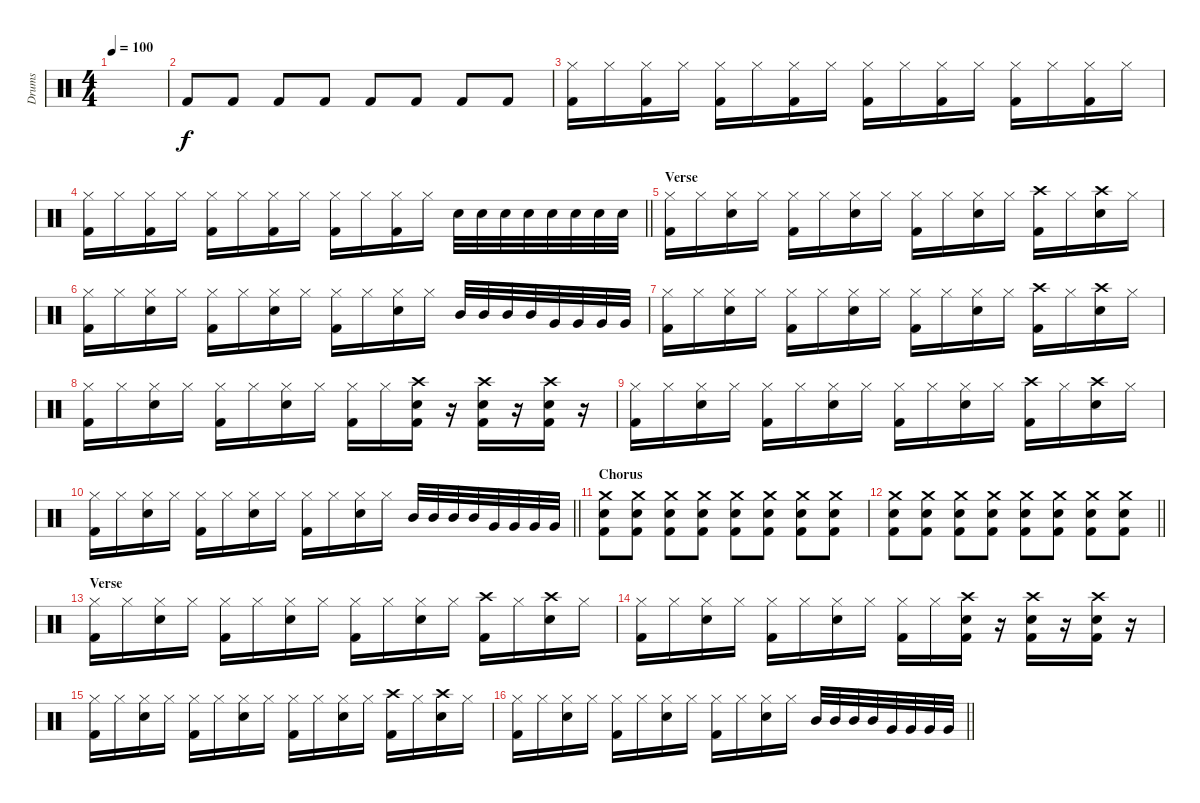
\track ("Drums" "Drums") {instrument percussion}
\staff {score}
\articulation defaults
\ts (4 4)
\tempo 100
\clef neutral
\ks c
|
"Kick (hit) 2".8 "Kick (hit) 2".8 "Kick (hit) 2".8 "Kick (hit) 2".8 "Kick (hit) 2".8 "Kick (hit) 2".8 "Kick (hit) 2".8 "Kick (hit) 2".8 |
("Kick (hit) 2" "Hi-Hat (closed)").16 "Hi-Hat (closed)".16 ("Kick (hit) 2" "Hi-Hat (closed)").16 "Hi-Hat (closed)".16 ("Kick (hit) 2" "Hi-Hat (closed)").16 "Hi-Hat (closed)".16 ("Kick (hit) 2" "Hi-Hat (closed)").16 "Hi-Hat (closed)".16 ("Kick (hit) 2" "Hi-Hat (closed)").16 "Hi-Hat (closed)".16 ("Kick (hit) 2" "Hi-Hat (closed)").16 "Hi-Hat (closed)".16 ("Kick (hit) 2" "Hi-Hat (closed)").16 "Hi-Hat (closed)".16 ("Kick (hit) 2" "Hi-Hat (closed)").16 "Hi-Hat (closed)".16 |
\barLineRight lightlight
("Kick (hit) 2" "Hi-Hat (closed)").16 "Hi-Hat (closed)".16 ("Kick (hit) 2" "Hi-Hat (closed)").16 "Hi-Hat (closed)".16 ("Kick (hit) 2" "Hi-Hat (closed)").16 "Hi-Hat (closed)".16 ("Kick (hit) 2" "Hi-Hat (closed)").16 "Hi-Hat (closed)".16 ("Kick (hit) 2" "Hi-Hat (closed)").16 "Hi-Hat (closed)".16 ("Kick (hit) 2" "Hi-Hat (closed)").16 "Hi-Hat (closed)".16 "Electric Snare (hit)".32 "Electric Snare (hit)".32 "Electric Snare (hit)".32 "Electric Snare (hit)".32 "Electric Snare (hit)".32 "Electric Snare (hit)".32 "Electric Snare (hit)".32 "Electric Snare (hit)".32 |
\section ("" "Verse")
("Kick (hit) 2" "Hi-Hat (closed)").16 "Hi-Hat (closed)".16 ("Electric Snare (hit)" "Hi-Hat (closed)").16 "Hi-Hat (closed)".16 ("Kick (hit) 2" "Hi-Hat (closed)").16 "Hi-Hat (closed)".16 ("Electric Snare (hit)" "Hi-Hat (closed)").16 "Hi-Hat (closed)".16 ("Kick (hit) 2" "Hi-Hat (closed)").16 "Hi-Hat (closed)".16 ("Electric Snare (hit)" "Hi-Hat (closed)").16 "Hi-Hat (closed)".16 ("Kick (hit) 2" "Crash high (hit)").16 "Hi-Hat (closed)".16 ("Electric Snare (hit)" "Crash high (hit)").16 "Hi-Hat (closed)".16 |
("Kick (hit) 2" "Hi-Hat (closed)").16 "Hi-Hat (closed)".16 ("Electric Snare (hit)" "Hi-Hat (closed)").16 "Hi-Hat (closed)".16 ("Kick (hit) 2" "Hi-Hat (closed)").16 "Hi-Hat (closed)".16 ("Electric Snare (hit)" "Hi-Hat (closed)").16 "Hi-Hat (closed)".16 ("Kick (hit) 2" "Hi-Hat (closed)").16 "Hi-Hat (closed)".16 ("Electric Snare (hit)" "Hi-Hat (closed)").16 "Hi-Hat (closed)".16 "Mid Tom (hit)".32 "Mid Tom (hit)".32 "Mid Tom (hit)".32 "Mid Tom (hit)".32 "Very Low Tom (hit)".32 "Very Low Tom (hit)".32 "Very Low Tom (hit)".32 "Very Low Tom (hit)".32 |
("Kick (hit) 2" "Hi-Hat (closed)").16 "Hi-Hat (closed)".16 ("Electric Snare (hit)" "Hi-Hat (closed)").16 "Hi-Hat (closed)".16 ("Kick (hit) 2" "Hi-Hat (closed)").16 "Hi-Hat (closed)".16 ("Electric Snare (hit)" "Hi-Hat (closed)").16 "Hi-Hat (closed)".16 ("Kick (hit) 2" "Hi-Hat (closed)").16 "Hi-Hat (closed)".16 ("Electric Snare (hit)" "Hi-Hat (closed)").16 "Hi-Hat (closed)".16 ("Kick (hit) 2" "Crash high (hit)").16 "Hi-Hat (closed)".16 ("Electric Snare (hit)" "Crash high (hit)").16 "Hi-Hat (closed)".16 |
("Kick (hit) 2" "Hi-Hat (closed)").16 "Hi-Hat (closed)".16 ("Electric Snare (hit)" "Hi-Hat (closed)").16 "Hi-Hat (closed)".16 ("Kick (hit) 2" "Hi-Hat (closed)").16 "Hi-Hat (closed)".16 ("Electric Snare (hit)" "Hi-Hat (closed)").16 "Hi-Hat (closed)".16 ("Kick (hit) 2" "Hi-Hat (closed)").16 "Hi-Hat (closed)".16 ("Electric Snare (hit)" "Kick (hit) 2" "Crash high (hit)").16 r.16 ("Electric Snare (hit)" "Kick (hit) 2" "Crash high (hit)").16 r.16 ("Electric Snare (hit)" "Kick (hit) 2" "Crash high (hit)").16 r.16 |
("Kick (hit) 2" "Hi-Hat (closed)").16 "Hi-Hat (closed)".16 ("Electric Snare (hit)" "Hi-Hat (closed)").16 "Hi-Hat (closed)".16 ("Kick (hit) 2" "Hi-Hat (closed)").16 "Hi-Hat (closed)".16 ("Electric Snare (hit)" "Hi-Hat (closed)").16 "Hi-Hat (closed)".16 ("Kick (hit) 2" "Hi-Hat (closed)").16 "Hi-Hat (closed)".16 ("Electric Snare (hit)" "Hi-Hat (closed)").16 "Hi-Hat (closed)".16 ("Kick (hit) 2" "Crash high (hit)").16 "Hi-Hat (closed)".16 ("Electric Snare (hit)" "Crash high (hit)").16 "Hi-Hat (closed)".16 |
\barLineRight lightlight
("Kick (hit) 2" "Hi-Hat (closed)").16 "Hi-Hat (closed)".16 ("Electric Snare (hit)" "Hi-Hat (closed)").16 "Hi-Hat (closed)".16 ("Kick (hit) 2" "Hi-Hat (closed)").16 "Hi-Hat (closed)".16 ("Electric Snare (hit)" "Hi-Hat (closed)").16 "Hi-Hat (closed)".16 ("Kick (hit) 2" "Hi-Hat (closed)").16 "Hi-Hat (closed)".16 ("Electric Snare (hit)" "Hi-Hat (closed)").16 "Hi-Hat (closed)".16 "Mid Tom (hit)".32 "Mid Tom (hit)".32 "Mid Tom (hit)".32 "Mid Tom (hit)".32 "Very Low Tom (hit)".32 "Very Low Tom (hit)".32 "Very Low Tom (hit)".32 "Very Low Tom (hit)".32 |
\section ("" "Chorus")
("Kick (hit) 2" "Electric Snare (hit)" "Crash medium (hit)").8 ("Kick (hit) 2" "Electric Snare (hit)" "Crash medium (hit)").8 ("Kick (hit) 2" "Electric Snare (hit)" "Crash medium (hit)").8 ("Kick (hit) 2" "Electric Snare (hit)" "Crash medium (hit)").8 ("Kick (hit) 2" "Electric Snare (hit)" "Crash medium (hit)").8 ("Kick (hit) 2" "Electric Snare (hit)" "Crash medium (hit)").8 ("Kick (hit) 2" "Electric Snare (hit)" "Crash medium (hit)").8 ("Kick (hit) 2" "Electric Snare (hit)" "Crash medium (hit)").8 |
\barLineRight lightlight
("Kick (hit) 2" "Electric Snare (hit)" "Crash medium (hit)").8 ("Kick (hit) 2" "Electric Snare (hit)" "Crash medium (hit)").8 ("Kick (hit) 2" "Electric Snare (hit)" "Crash medium (hit)").8 ("Kick (hit) 2" "Electric Snare (hit)" "Crash medium (hit)").8 ("Kick (hit) 2" "Electric Snare (hit)" "Crash medium (hit)").8 ("Kick (hit) 2" "Electric Snare (hit)" "Crash medium (hit)").8 ("Kick (hit) 2" "Electric Snare (hit)" "Crash medium (hit)").8 ("Kick (hit) 2" "Electric Snare (hit)" "Crash medium (hit)").8 |
\section ("" "Verse")
("Kick (hit) 2" "Hi-Hat (closed)").16 "Hi-Hat (closed)".16 ("Electric Snare (hit)" "Hi-Hat (closed)").16 "Hi-Hat (closed)".16 ("Kick (hit) 2" "Hi-Hat (closed)").16 "Hi-Hat (closed)".16 ("Electric Snare (hit)" "Hi-Hat (closed)").16 "Hi-Hat (closed)".16 ("Kick (hit) 2" "Hi-Hat (closed)").16 "Hi-Hat (closed)".16 ("Electric Snare (hit)" "Hi-Hat (closed)").16 "Hi-Hat (closed)".16 ("Kick (hit) 2" "Crash high (hit)").16 "Hi-Hat (closed)".16 ("Electric Snare (hit)" "Crash high (hit)").16 "Hi-Hat (closed)".16 |
("Kick (hit) 2" "Hi-Hat (closed)").16 "Hi-Hat (closed)".16 ("Electric Snare (hit)" "Hi-Hat (closed)").16 "Hi-Hat (closed)".16 ("Kick (hit) 2" "Hi-Hat (closed)").16 "Hi-Hat (closed)".16 ("Electric Snare (hit)" "Hi-Hat (closed)").16 "Hi-Hat (closed)".16 ("Kick (hit) 2" "Hi-Hat (closed)").16 "Hi-Hat (closed)".16 ("Electric Snare (hit)" "Kick (hit) 2" "Crash high (hit)").16 r.16 ("Electric Snare (hit)" "Kick (hit) 2" "Crash high (hit)").16 r.16 ("Electric Snare (hit)" "Kick (hit) 2" "Crash high (hit)").16 r.16 |
("Kick (hit) 2" "Hi-Hat (closed)").16 "Hi-Hat (closed)".16 ("Electric Snare (hit)" "Hi-Hat (closed)").16 "Hi-Hat (closed)".16 ("Kick (hit) 2" "Hi-Hat (closed)").16 "Hi-Hat (closed)".16 ("Electric Snare (hit)" "Hi-Hat (closed)").16 "Hi-Hat (closed)".16 ("Kick (hit) 2" "Hi-Hat (closed)").16 "Hi-Hat (closed)".16 ("Electric Snare (hit)" "Hi-Hat (closed)").16 "Hi-Hat (closed)".16 ("Kick (hit) 2" "Crash high (hit)").16 "Hi-Hat (closed)".16 ("Electric Snare (hit)" "Crash high (hit)").16 "Hi-Hat (closed)".16 |
\barLineRight lightlight
("Kick (hit) 2" "Hi-Hat (closed)").16 "Hi-Hat (closed)".16 ("Electric Snare (hit)" "Hi-Hat (closed)").16 "Hi-Hat (closed)".16 ("Kick (hit) 2" "Hi-Hat (closed)").16 "Hi-Hat (closed)".16 ("Electric Snare (hit)" "Hi-Hat (closed)").16 "Hi-Hat (closed)".16 ("Kick (hit) 2" "Hi-Hat (closed)").16 "Hi-Hat (closed)".16 ("Electric Snare (hit)" "Hi-Hat (closed)").16 "Hi-Hat (closed)".16 "Mid Tom (hit)".32 "Mid Tom (hit)".32 "Mid Tom (hit)".32 "Mid Tom (hit)".32 "Very Low Tom (hit)".32 "Very Low Tom (hit)".32 "Very Low Tom (hit)".32 "Very Low Tom (hit)".32
